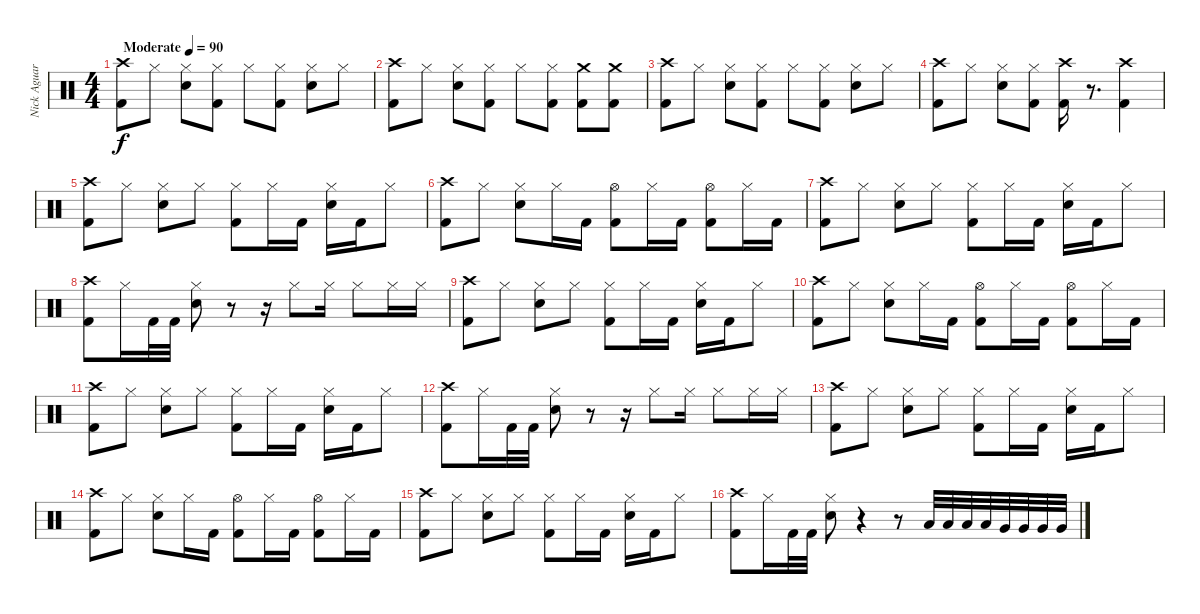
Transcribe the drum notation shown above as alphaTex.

\track ("Nick Aguara" "Nick Aguar") {instrument percussion}
\staff {score}
\articulation defaults
\ts (4 4)
\tempo (90 "Moderate")
\clef neutral
\ks c
("Crash high (hit)" "Kick (hit) 2").8{dy f} "Hi-Hat (closed)".8 ("Hi-Hat (closed)" "Electric Snare (hit)").8 ("Hi-Hat (closed)" "Kick (hit) 2").8 "Hi-Hat (closed)".8 ("Hi-Hat (closed)" "Kick (hit) 2").8 ("Hi-Hat (closed)" "Electric Snare (hit)").8 "Hi-Hat (closed)".8 |
("Crash high (hit)" "Kick (hit) 2").8 "Hi-Hat (closed)".8 ("Hi-Hat (closed)" "Electric Snare (hit)").8 ("Hi-Hat (closed)" "Kick (hit) 2").8 "Hi-Hat (closed)".8 ("Hi-Hat (closed)" "Kick (hit) 2").8 ("Crash medium (hit)" "Kick (hit) 2").8 ("Crash medium (hit)" "Kick (hit) 2").8 |
("Crash high (hit)" "Kick (hit) 2").8 "Hi-Hat (closed)".8 ("Hi-Hat (closed)" "Electric Snare (hit)").8 ("Hi-Hat (closed)" "Kick (hit) 2").8 "Hi-Hat (closed)".8 ("Hi-Hat (closed)" "Kick (hit) 2").8 ("Hi-Hat (closed)" "Electric Snare (hit)").8 "Hi-Hat (closed)".8 |
("Crash high (hit)" "Kick (hit) 2").8 "Hi-Hat (closed)".8 ("Hi-Hat (closed)" "Electric Snare (hit)").8 ("Hi-Hat (closed)" "Kick (hit) 2").8 ("Crash high (hit)" "Kick (hit) 2").16 r.8{d volume 0} ("Crash high (hit)" "Kick (hit) 2").4{volume 16} |
("Crash high (hit)" "Kick (hit) 2").8 "Hi-Hat (closed)".8 ("Hi-Hat (closed)" "Electric Snare (hit)").8 "Hi-Hat (closed)".8 ("Hi-Hat (closed)" "Kick (hit) 2").8 "Hi-Hat (closed)".16 "Kick (hit) 2".16 ("Hi-Hat (closed)" "Electric Snare (hit)").16 "Kick (hit) 2".16 "Hi-Hat (closed)".8 |
("Crash high (hit)" "Kick (hit) 2").8 "Hi-Hat (closed)".8 ("Hi-Hat (closed)" "Electric Snare (hit)").8 "Hi-Hat (closed)".16 "Kick (hit) 2".16 ("Hi-Hat (open)" "Kick (hit) 2").8 "Hi-Hat (closed)".16 "Kick (hit) 2".16 ("Hi-Hat (open)" "Kick (hit) 2").8 "Hi-Hat (closed)".16 "Kick (hit) 2".16 |
("Crash high (hit)" "Kick (hit) 2").8 "Hi-Hat (closed)".8 ("Hi-Hat (closed)" "Electric Snare (hit)").8 "Hi-Hat (closed)".8 ("Hi-Hat (closed)" "Kick (hit) 2").8 "Hi-Hat (closed)".16 "Kick (hit) 2".16 ("Hi-Hat (closed)" "Electric Snare (hit)").16 "Kick (hit) 2".16 "Hi-Hat (closed)".8 |
("Crash high (hit)" "Kick (hit) 2").8 "Hi-Hat (closed)".16 "Kick (hit) 2".32 "Kick (hit) 2".32 ("Hi-Hat (closed)" "Electric Snare (hit)").8 r.8 r.16 "Hi-Hat (closed)".8 "Hi-Hat (closed)".16 "Hi-Hat (closed)".8 "Hi-Hat (closed)".16 "Hi-Hat (closed)".16 |
("Crash high (hit)" "Kick (hit) 2").8 "Hi-Hat (closed)".8 ("Hi-Hat (closed)" "Electric Snare (hit)").8 "Hi-Hat (closed)".8 ("Hi-Hat (closed)" "Kick (hit) 2").8 "Hi-Hat (closed)".16 "Kick (hit) 2".16 ("Hi-Hat (closed)" "Electric Snare (hit)").16 "Kick (hit) 2".16 "Hi-Hat (closed)".8 |
("Crash high (hit)" "Kick (hit) 2").8 "Hi-Hat (closed)".8 ("Hi-Hat (closed)" "Electric Snare (hit)").8 "Hi-Hat (closed)".16 "Kick (hit) 2".16 ("Hi-Hat (open)" "Kick (hit) 2").8 "Hi-Hat (closed)".16 "Kick (hit) 2".16 ("Hi-Hat (open)" "Kick (hit) 2").8 "Hi-Hat (closed)".16 "Kick (hit) 2".16 |
("Crash high (hit)" "Kick (hit) 2").8 "Hi-Hat (closed)".8 ("Hi-Hat (closed)" "Electric Snare (hit)").8 "Hi-Hat (closed)".8 ("Hi-Hat (closed)" "Kick (hit) 2").8 "Hi-Hat (closed)".16 "Kick (hit) 2".16 ("Hi-Hat (closed)" "Electric Snare (hit)").16 "Kick (hit) 2".16 "Hi-Hat (closed)".8 |
("Crash high (hit)" "Kick (hit) 2").8 "Hi-Hat (closed)".16 "Kick (hit) 2".32 "Kick (hit) 2".32 ("Hi-Hat (closed)" "Electric Snare (hit)").8 r.8 r.16 "Hi-Hat (closed)".8 "Hi-Hat (closed)".16 "Hi-Hat (closed)".8 "Hi-Hat (closed)".16 "Hi-Hat (closed)".16 |
("Crash high (hit)" "Kick (hit) 2").8 "Hi-Hat (closed)".8 ("Hi-Hat (closed)" "Electric Snare (hit)").8 "Hi-Hat (closed)".8 ("Hi-Hat (closed)" "Kick (hit) 2").8 "Hi-Hat (closed)".16 "Kick (hit) 2".16 ("Hi-Hat (closed)" "Electric Snare (hit)").16 "Kick (hit) 2".16 "Hi-Hat (closed)".8 |
("Crash high (hit)" "Kick (hit) 2").8 "Hi-Hat (closed)".8 ("Hi-Hat (closed)" "Electric Snare (hit)").8 "Hi-Hat (closed)".16 "Kick (hit) 2".16 ("Hi-Hat (open)" "Kick (hit) 2").8 "Hi-Hat (closed)".16 "Kick (hit) 2".16 ("Hi-Hat (open)" "Kick (hit) 2").8 "Hi-Hat (closed)".16 "Kick (hit) 2".16 |
("Crash high (hit)" "Kick (hit) 2").8 "Hi-Hat (closed)".8 ("Hi-Hat (closed)" "Electric Snare (hit)").8 "Hi-Hat (closed)".8 ("Hi-Hat (closed)" "Kick (hit) 2").8 "Hi-Hat (closed)".16 "Kick (hit) 2".16 ("Hi-Hat (closed)" "Electric Snare (hit)").16 "Kick (hit) 2".16 "Hi-Hat (closed)".8 |
("Crash high (hit)" "Kick (hit) 2").8 "Hi-Hat (closed)".16 "Kick (hit) 2".32 "Kick (hit) 2".32 ("Hi-Hat (closed)" "Electric Snare (hit)").8 r.4 r.8 "Low Tom (hit)".32 "Low Tom (hit)".32 "Low Tom (hit)".32 "Low Tom (hit)".32 "Very Low Tom (hit)".32 "Very Low Tom (hit)".32 "Very Low Tom (hit)".32 "Very Low Tom (hit)".32
